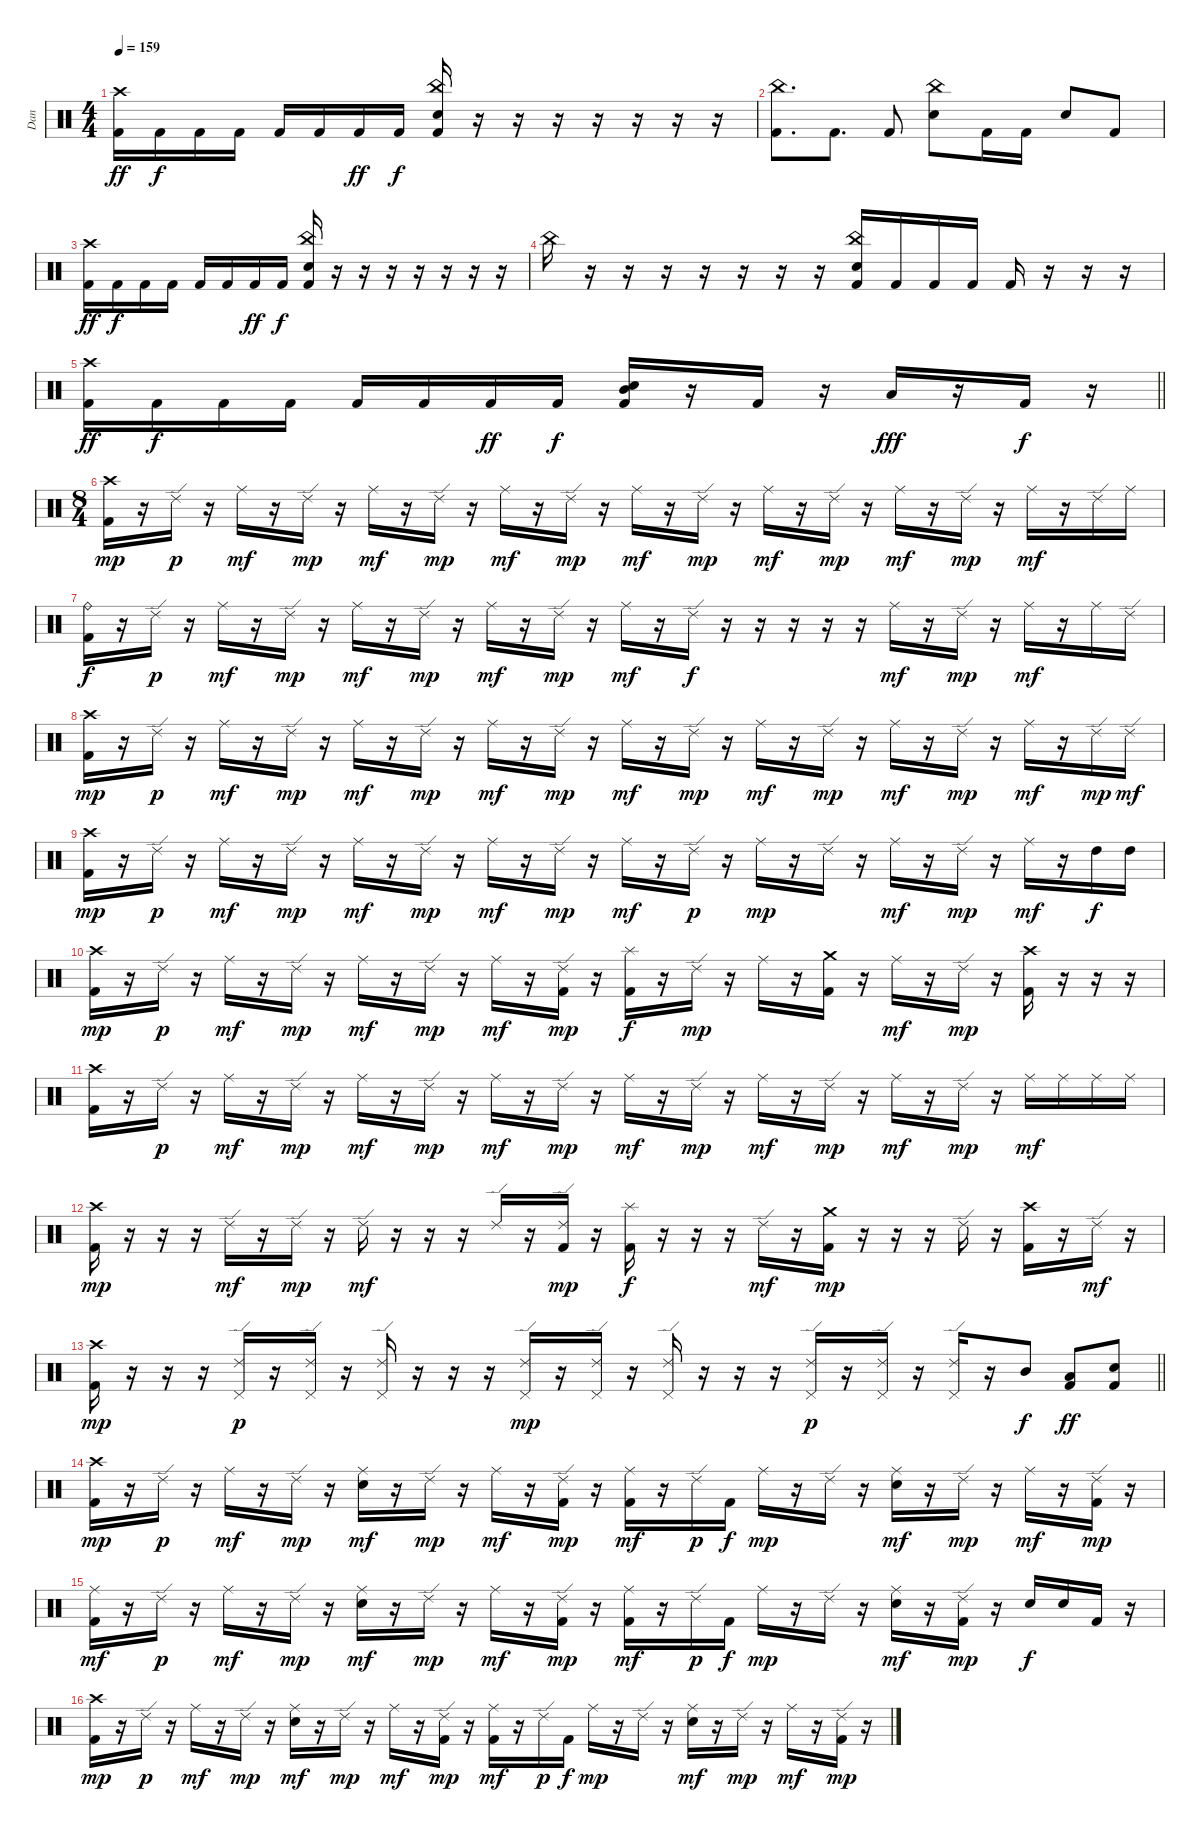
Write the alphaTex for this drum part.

\track ("Dan" "Dan") {instrument percussion}
\staff {score}
\articulation defaults
\ts (4 4)
\tempo 159
\clef neutral
\ks c
("Crash high (hit)" "Kick (hit) 2").16{dy ff} "Kick (hit) 2".16{dy f} "Kick (hit) 2".16 "Kick (hit) 2".16 "Kick (hit) 2".16 "Kick (hit) 2".16 "Kick (hit) 2".16{dy ff} "Kick (hit) 2".16{dy f} ("China (hit)" "Snare (hit) 2" "Kick (hit) 2").16 r.16 r.16 r.16 r.16 r.16 r.16 r.16 |
("China (hit)" "Kick (hit) 2").8{d} "Kick (hit) 2".8{d} "Kick (hit) 2".8 ("China (hit)" "Snare (hit) 2").8 "Kick (hit) 2".16 "Kick (hit) 2".16 "Snare (hit) 2".8 "Kick (hit) 2".8 |
("Crash high (hit)" "Kick (hit) 2").16{dy ff} "Kick (hit) 2".16{dy f} "Kick (hit) 2".16 "Kick (hit) 2".16 "Kick (hit) 2".16 "Kick (hit) 2".16 "Kick (hit) 2".16{dy ff} "Kick (hit) 2".16{dy f} ("China (hit)" "Snare (hit) 2" "Kick (hit) 2").16 r.16 r.16 r.16 r.16 r.16 r.16 r.16 |
"China (hit)".16 r.16 r.16 r.16 r.16 r.16 r.16 r.16 ("China (hit)" "Snare (hit) 2" "Kick (hit) 2").16 "Kick (hit) 2".16 "Kick (hit) 2".16 "Kick (hit) 2".16 "Kick (hit) 2".16 r.16 r.16 r.16 |
\barLineRight lightlight
("Crash high (hit)" "Kick (hit) 2").16{dy ff} "Kick (hit) 2".16{dy f} "Kick (hit) 2".16 "Kick (hit) 2".16 "Kick (hit) 2".16 "Kick (hit) 2".16 "Kick (hit) 2".16{dy ff} "Kick (hit) 2".16{dy f} ("Mid Tom (hit)" "Snare (hit) 2" "Kick (hit) 2").16 r.16 "Kick (hit) 2".16 r.16 "Low Tom (hit)".16{dy fff} r.16 "Kick (hit) 2".16{dy f} r.16 |
\ts (8 4)
("Crash high (hit)" "Kick (hit) 2").16{dy mp} r.16 "Ride (edge) 2".16{dy p} r.16 "Ride (middle)".16{dy mf} r.16 "Ride (edge) 2".16{dy mp} r.16 "Ride (middle)".16{dy mf} r.16 "Ride (edge) 2".16{dy mp} r.16 "Ride (middle)".16{dy mf} r.16 "Ride (edge) 2".16{dy mp} r.16 "Ride (middle)".16{dy mf} r.16 "Ride (edge) 2".16{dy mp} r.16 "Ride (middle)".16{dy mf} r.16 "Ride (edge) 2".16{dy mp} r.16 "Ride (middle)".16{dy mf} r.16 "Ride (edge) 2".16{dy mp} r.16 "Ride (middle)".16{dy mf} r.16 "Ride (edge) 2".16 "Ride (middle)".16 |
("Ride (bell)" "Kick (hit) 2").16{dy f} r.16 "Ride (edge) 2".16{dy p} r.16 "Ride (middle)".16{dy mf} r.16 "Ride (edge) 2".16{dy mp} r.16 "Ride (middle)".16{dy mf} r.16 "Ride (edge) 2".16{dy mp} r.16 "Ride (middle)".16{dy mf} r.16 "Ride (edge) 2".16{dy mp} r.16 "Ride (middle)".16{dy mf} r.16 "Ride (edge) 2".16{dy f} r.16 r.16 r.16 r.16 r.16 "Ride (middle)".16{dy mf} r.16 "Ride (edge) 2".16{dy mp} r.16 "Ride (middle)".16{dy mf} r.16 "Ride (middle)".16 "Ride (edge) 2".16 |
("Crash high (hit)" "Kick (hit) 2").16{dy mp} r.16 "Ride (edge) 2".16{dy p} r.16 "Ride (middle)".16{dy mf} r.16 "Ride (edge) 2".16{dy mp} r.16 "Ride (middle)".16{dy mf} r.16 "Ride (edge) 2".16{dy mp} r.16 "Ride (middle)".16{dy mf} r.16 "Ride (edge) 2".16{dy mp} r.16 "Ride (middle)".16{dy mf} r.16 "Ride (edge) 2".16{dy mp} r.16 "Ride (middle)".16{dy mf} r.16 "Ride (edge) 2".16{dy mp} r.16 "Ride (middle)".16{dy mf} r.16 "Ride (edge) 2".16{dy mp} r.16 "Ride (middle)".16{dy mf} r.16 "Ride (edge) 2".16{dy mp} "Ride (edge) 2".16{dy mf} |
("Crash high (hit)" "Kick (hit) 2").16{dy mp} r.16 "Ride (edge) 2".16{dy p} r.16 "Ride (middle)".16{dy mf} r.16 "Ride (edge) 2".16{dy mp} r.16 "Ride (middle)".16{dy mf} r.16 "Ride (edge) 2".16{dy mp} r.16 "Ride (middle)".16{dy mf} r.16 "Ride (edge) 2".16{dy mp} r.16 "Ride (middle)".16{dy mf} r.16 "Ride (edge) 2".16{dy p} r.16 "Ride (middle)".16{dy mp} r.16 "Ride (edge) 2".16 r.16 "Ride (middle)".16{dy mf} r.16 "Ride (edge) 2".16{dy mp} r.16 "Ride (middle)".16{dy mf} r.16 "High Tom (hit)".16{dy f} "High Tom (hit)".16 |
("Crash high (hit)" "Kick (hit) 2").16{dy mp} r.16 "Ride (edge) 2".16{dy p} r.16 "Ride (middle)".16{dy mf} r.16 "Ride (edge) 2".16{dy mp} r.16 "Ride (middle)".16{dy mf} r.16 "Ride (edge) 2".16{dy mp} r.16 "Ride (middle)".16{dy mf} r.16 ("Ride (edge) 2" "Kick (hit) 2").16{dy mp} r.16 ("Splash (hit)" "Kick (hit) 2").16{dy f} r.16 "Ride (edge) 2".16{dy mp} r.16 "Ride (middle)".16 r.16 ("Crash medium (hit)" "Kick (hit) 2").16 r.16 "Ride (middle)".16{dy mf} r.16 "Ride (edge) 2".16{dy mp} r.16 ("Crash high (hit)" "Kick (hit) 2").16 r.16 r.16 r.16 |
("Crash high (hit)" "Kick (hit) 2").16 r.16 "Ride (edge) 2".16{dy p} r.16 "Ride (middle)".16{dy mf} r.16 "Ride (edge) 2".16{dy mp} r.16 "Ride (middle)".16{dy mf} r.16 "Ride (edge) 2".16{dy mp} r.16 "Ride (middle)".16{dy mf} r.16 "Ride (edge) 2".16{dy mp} r.16 "Ride (middle)".16{dy mf} r.16 "Ride (edge) 2".16{dy mp} r.16 "Ride (middle)".16{dy mf} r.16 "Ride (edge) 2".16{dy mp} r.16 "Ride (middle)".16{dy mf} r.16 "Ride (edge) 2".16{dy mp} r.16 "Ride (middle)".16{dy mf} "Ride (middle)".16 "Ride (middle)".16 "Ride (middle)".16 |
("Crash high (hit)" "Kick (hit) 2").16{dy mp} r.16 r.16 r.16 "Ride (edge) 2".16{dy mf} r.16 "Ride (edge) 2".16{dy mp} r.16 "Ride (edge) 2".16{dy mf} r.16 r.16 r.16 "Ride (edge) 2".16 r.16 ("Ride (edge) 2" "Kick (hit) 2").16{dy mp} r.16 ("Splash (hit)" "Kick (hit) 2").16{dy f} r.16 r.16 r.16 "Ride (edge) 2".16{dy mf} r.16 ("Crash medium (hit)" "Kick (hit) 2").16{dy mp} r.16 r.16 r.16 "Ride (edge) 2".16 r.16 ("Crash high (hit)" "Kick (hit) 2").16 r.16 "Ride (edge) 2".16{dy mf} r.16 |
\barLineRight lightlight
("Crash high (hit)" "Kick (hit) 2").16{dy mp} r.16 r.16 r.16 ("Ride (edge) 2" "Pedal Hi-Hat (hit)").16{dy p} r.16 ("Ride (edge) 2" "Pedal Hi-Hat (hit)").16 r.16 ("Ride (edge) 2" "Pedal Hi-Hat (hit)").16 r.16 r.16 r.16 ("Ride (edge) 2" "Pedal Hi-Hat (hit)").16{dy mp} r.16 ("Ride (edge) 2" "Pedal Hi-Hat (hit)").16 r.16 ("Ride (edge) 2" "Pedal Hi-Hat (hit)").16 r.16 r.16 r.16 ("Ride (edge) 2" "Pedal Hi-Hat (hit)").16{dy p} r.16 ("Ride (edge) 2" "Pedal Hi-Hat (hit)").16 r.16 ("Ride (edge) 2" "Pedal Hi-Hat (hit)").16 r.16 "Mid Tom (hit)".8{dy f} ("Low Tom (hit)" "Kick (hit) 2").8{dy ff} ("Snare (hit) 2" "Kick (hit) 2").8 |
("Crash high (hit)" "Kick (hit) 2").16{dy mp} r.16 "Ride (edge) 2".16{dy p} r.16 "Ride (middle)".16{dy mf} r.16 "Ride (edge) 2".16{dy mp} r.16 ("Ride (middle)" "Snare (hit) 2").16{dy mf} r.16 "Ride (edge) 2".16{dy mp} r.16 "Ride (middle)".16{dy mf} r.16 ("Ride (edge) 2" "Kick (hit) 2").16{dy mp} r.16 ("Ride (middle)" "Kick (hit) 2").16{dy mf} r.16 "Ride (edge) 2".16{dy p} "Kick (hit) 2".16{dy f} "Ride (middle)".16{dy mp} r.16 "Ride (edge) 2".16 r.16 ("Ride (middle)" "Snare (hit) 2").16{dy mf} r.16 "Ride (edge) 2".16{dy mp} r.16 "Ride (middle)".16{dy mf} r.16 ("Ride (edge) 2" "Kick (hit) 2").16{dy mp} r.16 |
("Ride (middle)" "Kick (hit) 2").16{dy mf} r.16 "Ride (edge) 2".16{dy p} r.16 "Ride (middle)".16{dy mf} r.16 "Ride (edge) 2".16{dy mp} r.16 ("Ride (middle)" "Snare (hit) 2").16{dy mf} r.16 "Ride (edge) 2".16{dy mp} r.16 "Ride (middle)".16{dy mf} r.16 ("Ride (edge) 2" "Kick (hit) 2").16{dy mp} r.16 ("Ride (middle)" "Kick (hit) 2").16{dy mf} r.16 "Ride (edge) 2".16{dy p} "Kick (hit) 2".16{dy f} "Ride (middle)".16{dy mp} r.16 "Ride (edge) 2".16 r.16 ("Ride (middle)" "Snare (hit) 2").16{dy mf} r.16 ("Ride (edge) 2" "Kick (hit) 2").16{dy mp} r.16 "Snare (hit) 2".16{dy f} "Snare (hit) 2".16 "Kick (hit) 2".16 r.16 |
("Crash high (hit)" "Kick (hit) 2").16{dy mp} r.16 "Ride (edge) 2".16{dy p} r.16 "Ride (middle)".16{dy mf} r.16 "Ride (edge) 2".16{dy mp} r.16 ("Ride (middle)" "Snare (hit) 2").16{dy mf} r.16 "Ride (edge) 2".16{dy mp} r.16 "Ride (middle)".16{dy mf} r.16 ("Ride (edge) 2" "Kick (hit) 2").16{dy mp} r.16 ("Ride (middle)" "Kick (hit) 2").16{dy mf} r.16 "Ride (edge) 2".16{dy p} "Kick (hit) 2".16{dy f} "Ride (middle)".16{dy mp} r.16 "Ride (edge) 2".16 r.16 ("Ride (middle)" "Snare (hit) 2").16{dy mf} r.16 "Ride (edge) 2".16{dy mp} r.16 "Ride (middle)".16{dy mf} r.16 ("Ride (edge) 2" "Kick (hit) 2").16{dy mp} r.16
